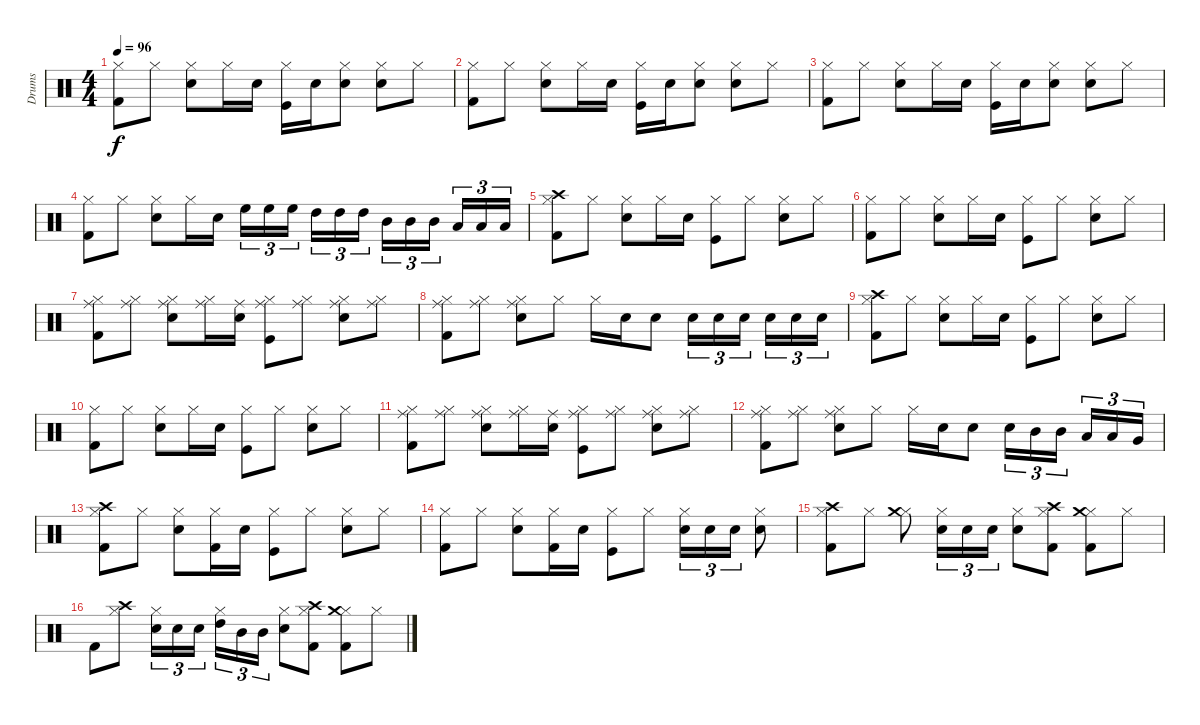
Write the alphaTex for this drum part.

\track ("Drums" "Drums") {instrument percussion}
\staff {score}
\articulation defaults
\ts (4 4)
\tempo 96
\clef neutral
\ks c
("Kick (hit) 2" "Hi-Hat (closed)").8{dy f} "Hi-Hat (closed)".8 ("Snare (hit) 2" "Hi-Hat (closed)").8 "Hi-Hat (closed)".16 "Snare (hit) 2".16 ("Kick (hit)" "Hi-Hat (closed)").16 "Snare (hit) 2".16 ("Snare (hit) 2" "Hi-Hat (closed)").8 ("Snare (hit) 2" "Hi-Hat (closed)").8 "Hi-Hat (closed)".8 |
("Kick (hit) 2" "Hi-Hat (closed)").8 "Hi-Hat (closed)".8 ("Snare (hit) 2" "Hi-Hat (closed)").8 "Hi-Hat (closed)".16 "Snare (hit) 2".16 ("Kick (hit)" "Hi-Hat (closed)").16 "Snare (hit) 2".16 ("Snare (hit) 2" "Hi-Hat (closed)").8 ("Snare (hit) 2" "Hi-Hat (closed)").8 "Hi-Hat (closed)".8 |
("Kick (hit) 2" "Hi-Hat (closed)").8 "Hi-Hat (closed)".8 ("Snare (hit) 2" "Hi-Hat (closed)").8 "Hi-Hat (closed)".16 "Snare (hit) 2".16 ("Kick (hit)" "Hi-Hat (closed)").16 "Snare (hit) 2".16 ("Snare (hit) 2" "Hi-Hat (closed)").8 ("Snare (hit) 2" "Hi-Hat (closed)").8 "Hi-Hat (closed)".8 |
("Kick (hit) 2" "Hi-Hat (closed)").8 "Hi-Hat (closed)".8 ("Snare (hit) 2" "Hi-Hat (closed)").8 "Hi-Hat (closed)".16 "Snare (hit) 2".16 "High Floor Tom (hit)".16{tu (3 2)} "High Floor Tom (hit)".16{tu (3 2)} "High Floor Tom (hit)".16{tu (3 2)} "High Tom (hit)".16{tu (3 2)} "High Tom (hit)".16{tu (3 2)} "High Tom (hit)".16{tu (3 2)} "Mid Tom (hit)".16{tu (3 2)} "Mid Tom (hit)".16{tu (3 2)} "Mid Tom (hit)".16{tu (3 2)} "Low Tom (hit)".16{tu (3 2)} "Low Tom (hit)".16{tu (3 2)} "Low Tom (hit)".16{tu (3 2)} |
("Kick (hit) 2" "Hi-Hat (closed)" "Crash high (hit)").8 "Hi-Hat (closed)".8 ("Snare (hit) 2" "Hi-Hat (closed)").8 "Hi-Hat (closed)".16 "Snare (hit) 2".16 ("Kick (hit)" "Hi-Hat (closed)").8 "Hi-Hat (closed)".8 ("Snare (hit) 2" "Hi-Hat (closed)").8 "Hi-Hat (closed)".8 |
("Kick (hit) 2" "Hi-Hat (closed)").8 "Hi-Hat (closed)".8 ("Snare (hit) 2" "Hi-Hat (closed)").8 "Hi-Hat (closed)".16 "Snare (hit) 2".16 ("Kick (hit)" "Hi-Hat (closed)").8 "Hi-Hat (closed)".8 ("Snare (hit) 2" "Hi-Hat (closed)").8 "Hi-Hat (closed)".8 |
("Kick (hit) 2" "Hi-Hat (closed)" "Ride (middle)").8 ("Hi-Hat (closed)" "Ride (middle)").8 ("Snare (hit) 2" "Hi-Hat (closed)" "Ride (middle)").8 ("Hi-Hat (closed)" "Ride (middle)").16 ("Snare (hit) 2" "Ride (middle)").16 ("Kick (hit)" "Hi-Hat (closed)" "Ride (middle)").8 ("Hi-Hat (closed)" "Ride (middle)").8 ("Snare (hit) 2" "Hi-Hat (closed)" "Ride (middle)").8 ("Hi-Hat (closed)" "Ride (middle)").8 |
("Kick (hit) 2" "Hi-Hat (closed)" "Ride (middle)").8 ("Hi-Hat (closed)" "Ride (middle)").8 ("Snare (hit) 2" "Hi-Hat (closed)" "Ride (middle)").8 "Hi-Hat (closed)".8 "Hi-Hat (closed)".16 "Snare (hit) 2".16 "Snare (hit) 2".8 "Snare (hit) 2".16{tu (3 2)} "Snare (hit) 2".16{tu (3 2)} "Snare (hit) 2".16{tu (3 2)} "Snare (hit) 2".16{tu (3 2)} "Snare (hit) 2".16{tu (3 2)} "Snare (hit) 2".16{tu (3 2)} |
("Kick (hit) 2" "Hi-Hat (closed)" "Crash high (hit)").8 "Hi-Hat (closed)".8 ("Snare (hit) 2" "Hi-Hat (closed)").8 "Hi-Hat (closed)".16 "Snare (hit) 2".16 ("Kick (hit)" "Hi-Hat (closed)").8 "Hi-Hat (closed)".8 ("Snare (hit) 2" "Hi-Hat (closed)").8 "Hi-Hat (closed)".8 |
("Kick (hit) 2" "Hi-Hat (closed)").8 "Hi-Hat (closed)".8 ("Snare (hit) 2" "Hi-Hat (closed)").8 "Hi-Hat (closed)".16 "Snare (hit) 2".16 ("Kick (hit)" "Hi-Hat (closed)").8 "Hi-Hat (closed)".8 ("Snare (hit) 2" "Hi-Hat (closed)").8 "Hi-Hat (closed)".8 |
("Kick (hit) 2" "Hi-Hat (closed)" "Ride (middle)").8 ("Hi-Hat (closed)" "Ride (middle)").8 ("Snare (hit) 2" "Hi-Hat (closed)" "Ride (middle)").8 ("Hi-Hat (closed)" "Ride (middle)").16 ("Snare (hit) 2" "Ride (middle)").16 ("Kick (hit)" "Hi-Hat (closed)" "Ride (middle)").8 ("Hi-Hat (closed)" "Ride (middle)").8 ("Snare (hit) 2" "Hi-Hat (closed)" "Ride (middle)").8 ("Hi-Hat (closed)" "Ride (middle)").8 |
("Kick (hit) 2" "Hi-Hat (closed)" "Ride (middle)").8 ("Hi-Hat (closed)" "Ride (middle)").8 ("Snare (hit) 2" "Hi-Hat (closed)" "Ride (middle)").8 "Hi-Hat (closed)".8 "Hi-Hat (closed)".16 "Snare (hit) 2".16 "Snare (hit) 2".8 "Snare (hit) 2".16{tu (3 2)} "Mid Tom (hit)".16{tu (3 2)} "Mid Tom (hit)".16{tu (3 2)} "Low Tom (hit)".16{tu (3 2)} "Low Tom (hit)".16{tu (3 2)} "Very Low Tom (hit)".16{tu (3 2)} |
("Kick (hit) 2" "Hi-Hat (closed)" "Crash high (hit)").8 "Hi-Hat (closed)".8 ("Snare (hit) 2" "Hi-Hat (closed)").8 ("Kick (hit) 2" "Hi-Hat (closed)").16 "Snare (hit) 2".16 ("Kick (hit)" "Hi-Hat (closed)").8 "Hi-Hat (closed)".8 ("Snare (hit) 2" "Hi-Hat (closed)").8 "Hi-Hat (closed)".8 |
("Kick (hit) 2" "Hi-Hat (closed)").8 "Hi-Hat (closed)".8 ("Snare (hit) 2" "Hi-Hat (closed)").8 ("Kick (hit) 2" "Hi-Hat (closed)").16 "Snare (hit) 2".16 ("Kick (hit)" "Hi-Hat (closed)").8 "Hi-Hat (closed)".8 ("Snare (hit) 2" "Hi-Hat (closed)").16{tu (3 2)} "Snare (hit) 2".16{tu (3 2)} "Snare (hit) 2".16{tu (3 2)} ("Snare (hit) 2" "Hi-Hat (closed)").8 |
("Kick (hit) 2" "Hi-Hat (closed)" "Crash high (hit)").8 "Hi-Hat (closed)".8 ("Hi-Hat (closed)" "Crash medium (hit)").8 ("Snare (hit) 2" "Hi-Hat (closed)").16{tu (3 2)} "Snare (hit) 2".16{tu (3 2)} "Snare (hit) 2".16{tu (3 2)} ("Snare (hit) 2" "Hi-Hat (closed)").8 ("Kick (hit) 2" "Hi-Hat (closed)" "Crash high (hit)").8 ("Kick (hit) 2" "Hi-Hat (closed)" "Crash medium (hit)").8 "Hi-Hat (closed)".8 |
"Kick (hit) 2".8 ("Hi-Hat (closed)" "Crash high (hit)").8 ("Snare (hit) 2" "Hi-Hat (closed)").16{tu (3 2)} "Snare (hit) 2".16{tu (3 2)} "Snare (hit) 2".16{tu (3 2)} ("Hi-Hat (closed)" "High Tom (hit)").16{tu (3 2)} "Mid Tom (hit)".16{tu (3 2)} "Mid Tom (hit)".16{tu (3 2)} ("Snare (hit) 2" "Hi-Hat (closed)").8 ("Kick (hit) 2" "Hi-Hat (closed)" "Crash high (hit)").8 ("Kick (hit) 2" "Hi-Hat (closed)" "Crash medium (hit)").8 "Hi-Hat (closed)".8
